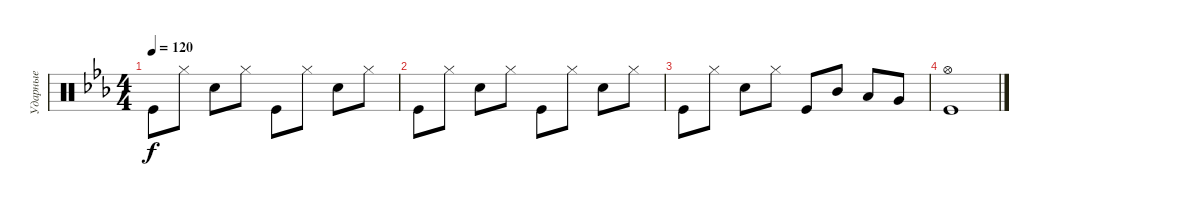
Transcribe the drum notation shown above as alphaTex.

\track ("Ударные" "Ударные") {instrument percussion}
\staff {score}
\articulation defaults
\ts (4 4)
\tempo 120
\clef neutral
\ks cminor "Kick (hit)".8{dy f} "Hi-Hat (closed)".8 "Snare (hit) 2".8 "Hi-Hat (closed)".8 "Kick (hit)".8 "Hi-Hat (closed)".8 "Snare (hit) 2".8 "Hi-Hat (closed)".8
|
"Kick (hit)".8 "Hi-Hat (closed)".8 "Snare (hit) 2".8 "Hi-Hat (closed)".8 "Kick (hit)".8 "Hi-Hat (closed)".8 "Snare (hit) 2".8 "Hi-Hat (closed)".8 |
"Kick (hit)".8 "Hi-Hat (closed)".8 "Snare (hit) 2".8 "Hi-Hat (closed)".8 "Kick (hit)".8 "Mid Tom (hit)".8 "Low Tom (hit)".8 "Very Low Tom (hit)".8 |
("Hi-Hat (open)" "Kick (hit)").1
